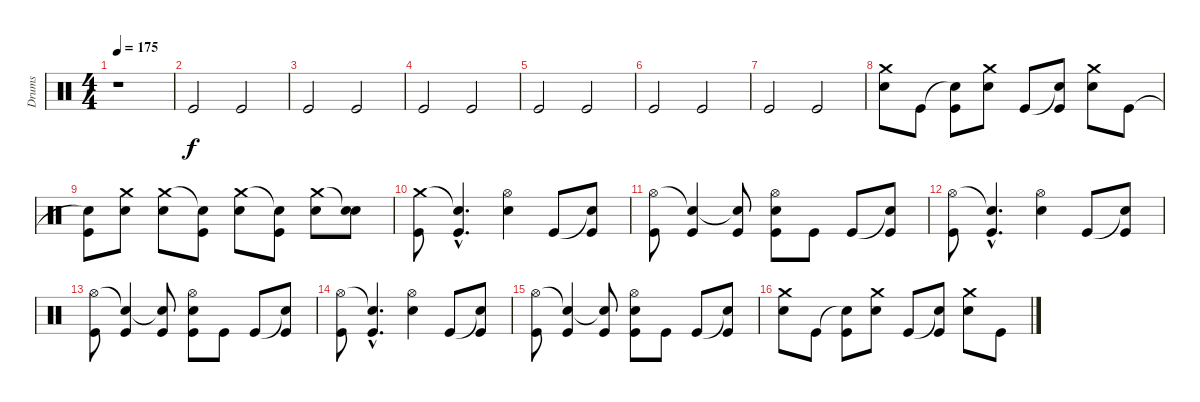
\track ("Drums" "Drums") {instrument percussion}
\staff {score}
\articulation defaults
\ts (4 4)
\tempo 175
\clef neutral
\ks c
r.1{dy f} |
"Kick (hit)".2 "Kick (hit)".2 |
"Kick (hit)".2 "Kick (hit)".2 |
"Kick (hit)".2 "Kick (hit)".2 |
"Kick (hit)".2 "Kick (hit)".2 |
"Kick (hit)".2 "Kick (hit)".2 |
"Kick (hit)".2 "Kick (hit)".2 |
("Crash medium (hit)" "Electric Snare (hit)").8 "Kick (hit)".8 ("Snare (hit)"{t} "Kick (hit)").8 ("Crash medium (hit)" "Electric Snare (hit)").8 "Kick (hit)".8 ("Snare (hit)"{t} "Kick (hit)").8 ("Crash medium (hit)" "Electric Snare (hit)").8 "Kick (hit)".8 |
("Snare (hit)"{t} "Kick (hit)").8 ("Crash medium (hit)" "Electric Snare (hit)").8 ("Crash medium (hit)" "Electric Snare (hit)").8 ("Snare (hit)"{t} "Kick (hit)").8 ("Crash medium (hit)" "Electric Snare (hit)").8 ("Snare (hit)"{t} "Kick (hit)").8 ("Crash medium (hit)" "Electric Snare (hit)").8 ("Snare (hit)"{t} "Electric Snare (hit)").8 |
("Crash medium (hit)" "Kick (hit)").8 ("Snare (hit)"{hac t} "Kick (hit)"{hac}).4{d} ("Hi-Hat (open)" "Electric Snare (hit)").4 "Kick (hit)".8 ("Snare (hit)"{t} "Kick (hit)").8 |
("Hi-Hat (open)" "Kick (hit)").8 ("Snare (hit)"{t} "Kick (hit)").4 ("Snare (hit)"{t} "Kick (hit)").8 ("Hi-Hat (open)" "Electric Snare (hit)" "Kick (hit)").8 "Kick (hit)".8 "Kick (hit)".8 ("Snare (hit)"{t} "Kick (hit)").8 |
("Hi-Hat (open)" "Kick (hit)").8 ("Snare (hit)"{hac t} "Kick (hit)"{hac}).4{d} ("Hi-Hat (open)" "Electric Snare (hit)").4 "Kick (hit)".8 ("Snare (hit)"{t} "Kick (hit)").8 |
("Hi-Hat (open)" "Kick (hit)").8 ("Snare (hit)"{t} "Kick (hit)").4 ("Snare (hit)"{t} "Kick (hit)").8 ("Hi-Hat (open)" "Electric Snare (hit)" "Kick (hit)").8 "Kick (hit)".8 "Kick (hit)".8 ("Snare (hit)"{t} "Kick (hit)").8 |
("Hi-Hat (open)" "Kick (hit)").8 ("Snare (hit)"{hac t} "Kick (hit)"{hac}).4{d} ("Hi-Hat (open)" "Electric Snare (hit)").4 "Kick (hit)".8 ("Snare (hit)"{t} "Kick (hit)").8 |
("Hi-Hat (open)" "Kick (hit)").8 ("Snare (hit)"{t} "Kick (hit)").4 ("Snare (hit)"{t} "Kick (hit)").8 ("Hi-Hat (open)" "Electric Snare (hit)" "Kick (hit)").8 "Kick (hit)".8 "Kick (hit)".8 ("Snare (hit)"{t} "Kick (hit)").8 |
("Crash medium (hit)" "Electric Snare (hit)").8 "Kick (hit)".8 ("Snare (hit)"{t} "Kick (hit)").8 ("Crash medium (hit)" "Electric Snare (hit)").8 "Kick (hit)".8 ("Snare (hit)"{t} "Kick (hit)").8 ("Crash medium (hit)" "Electric Snare (hit)").8 "Kick (hit)".8
